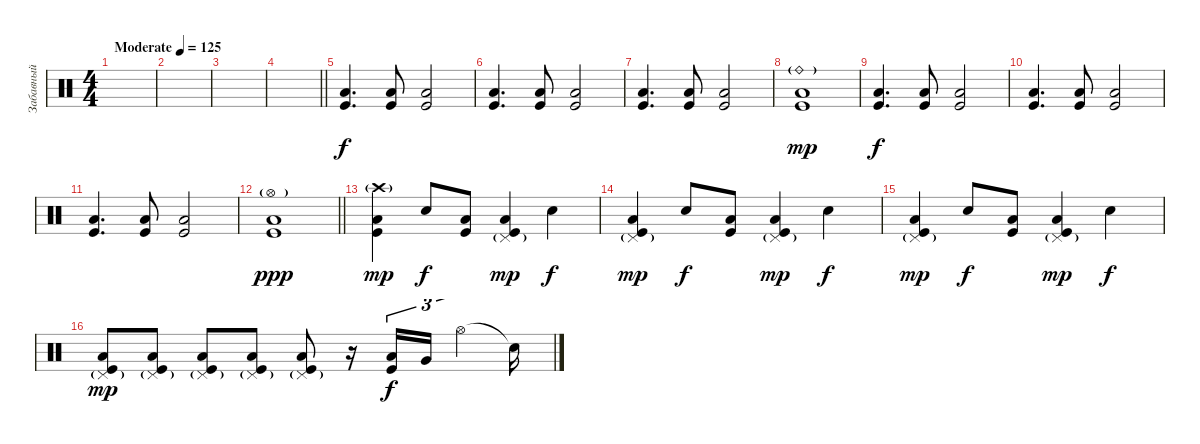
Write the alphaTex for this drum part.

\track ("Забавный" "Забавный") {instrument percussion}
\staff {score}
\articulation defaults
\ts (4 4)
\tempo (125 "Moderate")
\clef neutral
\ks c
|
|
|
\barLineRight lightlight
|
("Low Tom (hit)" "Kick (hit)").4{d} ("Low Tom (hit)" "Kick (hit)").8 ("Low Tom (hit)" "Kick (hit)").2 |
("Low Tom (hit)" "Kick (hit)").4{d} ("Low Tom (hit)" "Kick (hit)").8 ("Low Tom (hit)" "Kick (hit)").2 |
("Low Tom (hit)" "Kick (hit)").4{d} ("Low Tom (hit)" "Kick (hit)").8 ("Low Tom (hit)" "Kick (hit)").2 |
("Ride (bell)"{g} "Low Tom (hit)" "Kick (hit)").1{dy mp} |
("Low Tom (hit)" "Kick (hit)").4{d dy f} ("Low Tom (hit)" "Kick (hit)").8 ("Low Tom (hit)" "Kick (hit)").2 |
("Low Tom (hit)" "Kick (hit)").4{d} ("Low Tom (hit)" "Kick (hit)").8 ("Low Tom (hit)" "Kick (hit)").2 |
("Low Tom (hit)" "Kick (hit)").4{d} ("Low Tom (hit)" "Kick (hit)").8 ("Low Tom (hit)" "Kick (hit)").2 |
\barLineRight lightlight
("Hi-Hat (open)"{g} "Low Tom (hit)" "Kick (hit)").1{dy ppp} |
("Crash high (hit)"{g} "Low Tom (hit)" "Kick (hit)").4{dy mp} "Electric Snare (hit)".8{dy f} ("Low Tom (hit)" "Kick (hit)").8 ("Pedal Hi-Hat (hit)"{g} "Low Tom (hit)" "Kick (hit)").4{dy mp} "Electric Snare (hit)".4{dy f} |
("Pedal Hi-Hat (hit)"{g} "Low Tom (hit)" "Kick (hit)").4{dy mp} "Electric Snare (hit)".8{dy f} ("Low Tom (hit)" "Kick (hit)").8 ("Pedal Hi-Hat (hit)"{g} "Low Tom (hit)" "Kick (hit)").4{dy mp} "Electric Snare (hit)".4{dy f} |
("Pedal Hi-Hat (hit)"{g} "Low Tom (hit)" "Kick (hit)").4{dy mp} "Electric Snare (hit)".8{dy f} ("Low Tom (hit)" "Kick (hit)").8 ("Pedal Hi-Hat (hit)"{g} "Low Tom (hit)" "Kick (hit)").4{dy mp} "Electric Snare (hit)".4{dy f} |
("Pedal Hi-Hat (hit)"{g} "Low Tom (hit)" "Kick (hit)").8{dy mp} ("Pedal Hi-Hat (hit)"{g} "Low Tom (hit)" "Kick (hit)").8 ("Pedal Hi-Hat (hit)"{g} "Low Tom (hit)" "Kick (hit)").8 ("Pedal Hi-Hat (hit)"{g} "Low Tom (hit)" "Kick (hit)").8 ("Pedal Hi-Hat (hit)"{g} "Low Tom (hit)" "Kick (hit)").8 r.16 ("Low Tom (hit)" "Kick (hit)").16{tu (3 2) dy f} "Very Low Tom (hit)".16{tu (3 2)} "Hi-Hat (open)".4{tu (3 2)} "Snare (hit)"{t}.16
